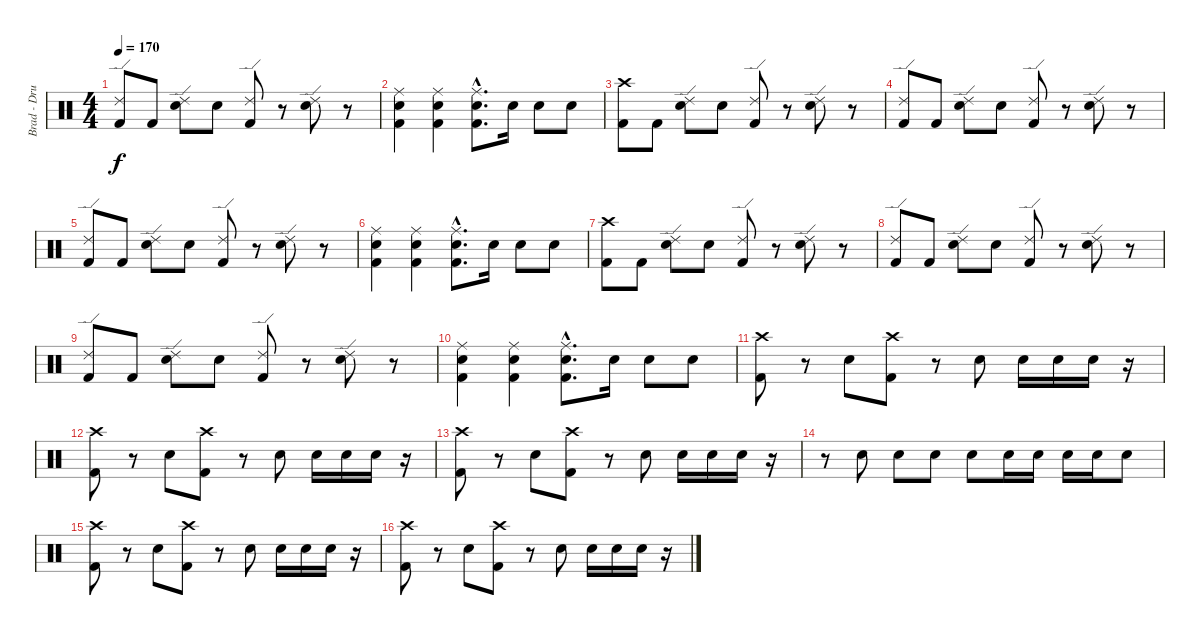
\track ("Brad - Drums" "Brad - Dru") {instrument percussion}
\staff {score}
\articulation defaults
\ts (4 4)
\tempo 170
\clef neutral
\ks c
("Ride (edge) 2" "Kick (hit) 2").8{dy f} "Kick (hit) 2".8 ("Ride (edge) 2" "Electric Snare (hit)").8 "Electric Snare (hit)".8 ("Ride (edge) 2" "Kick (hit) 2").8 r.8 ("Ride (edge) 2" "Electric Snare (hit)").8 r.8 |
("Ride (middle)" "Electric Snare (hit)" "Kick (hit) 2").4 ("Ride (middle)" "Electric Snare (hit)" "Kick (hit) 2").4 ("Ride (middle)"{hac} "Electric Snare (hit)"{hac} "Kick (hit) 2"{hac}).8{d} "Electric Snare (hit)".16 "Electric Snare (hit)".8 "Electric Snare (hit)".8 |
("Crash high (hit)" "Kick (hit) 2").8 "Kick (hit) 2".8 ("Ride (edge) 2" "Electric Snare (hit)").8 "Electric Snare (hit)".8 ("Ride (edge) 2" "Kick (hit) 2").8 r.8 ("Ride (edge) 2" "Electric Snare (hit)").8 r.8 |
("Ride (edge) 2" "Kick (hit) 2").8 "Kick (hit) 2".8 ("Ride (edge) 2" "Electric Snare (hit)").8 "Electric Snare (hit)".8 ("Ride (edge) 2" "Kick (hit) 2").8 r.8 ("Ride (edge) 2" "Electric Snare (hit)").8 r.8 |
("Ride (edge) 2" "Kick (hit) 2").8 "Kick (hit) 2".8 ("Ride (edge) 2" "Electric Snare (hit)").8 "Electric Snare (hit)".8 ("Ride (edge) 2" "Kick (hit) 2").8 r.8 ("Ride (edge) 2" "Electric Snare (hit)").8 r.8 |
("Ride (middle)" "Electric Snare (hit)" "Kick (hit) 2").4 ("Ride (middle)" "Electric Snare (hit)" "Kick (hit) 2").4 ("Ride (middle)"{hac} "Electric Snare (hit)"{hac} "Kick (hit) 2"{hac}).8{d} "Electric Snare (hit)".16 "Electric Snare (hit)".8 "Electric Snare (hit)".8 |
("Crash high (hit)" "Kick (hit) 2").8 "Kick (hit) 2".8 ("Ride (edge) 2" "Electric Snare (hit)").8 "Electric Snare (hit)".8 ("Ride (edge) 2" "Kick (hit) 2").8 r.8 ("Ride (edge) 2" "Electric Snare (hit)").8 r.8 |
("Ride (edge) 2" "Kick (hit) 2").8 "Kick (hit) 2".8 ("Ride (edge) 2" "Electric Snare (hit)").8 "Electric Snare (hit)".8 ("Ride (edge) 2" "Kick (hit) 2").8 r.8 ("Ride (edge) 2" "Electric Snare (hit)").8 r.8 |
("Ride (edge) 2" "Kick (hit) 2").8 "Kick (hit) 2".8 ("Ride (edge) 2" "Electric Snare (hit)").8 "Electric Snare (hit)".8 ("Ride (edge) 2" "Kick (hit) 2").8 r.8 ("Ride (edge) 2" "Electric Snare (hit)").8 r.8 |
("Ride (middle)" "Electric Snare (hit)" "Kick (hit) 2").4 ("Ride (middle)" "Electric Snare (hit)" "Kick (hit) 2").4 ("Ride (middle)"{hac} "Electric Snare (hit)"{hac} "Kick (hit) 2"{hac}).8{d} "Electric Snare (hit)".16 "Electric Snare (hit)".8 "Electric Snare (hit)".8 |
("Crash high (hit)" "Kick (hit) 2").8 r.8 "Electric Snare (hit)".8 ("Crash high (hit)" "Kick (hit) 2").8 r.8 "Electric Snare (hit)".8 "Electric Snare (hit)".16 "Electric Snare (hit)".16 "Electric Snare (hit)".16 r.16 |
("Crash high (hit)" "Kick (hit) 2").8 r.8 "Electric Snare (hit)".8 ("Crash high (hit)" "Kick (hit) 2").8 r.8 "Electric Snare (hit)".8 "Electric Snare (hit)".16 "Electric Snare (hit)".16 "Electric Snare (hit)".16 r.16 |
("Crash high (hit)" "Kick (hit) 2").8 r.8 "Electric Snare (hit)".8 ("Crash high (hit)" "Kick (hit) 2").8 r.8 "Electric Snare (hit)".8 "Electric Snare (hit)".16 "Electric Snare (hit)".16 "Electric Snare (hit)".16 r.16 |
r.8 "Electric Snare (hit)".8 "Electric Snare (hit)".8 "Electric Snare (hit)".8 "Electric Snare (hit)".8 "Electric Snare (hit)".16 "Electric Snare (hit)".16 "Electric Snare (hit)".16 "Electric Snare (hit)".16 "Electric Snare (hit)".8 |
("Crash high (hit)" "Kick (hit) 2").8 r.8 "Electric Snare (hit)".8 ("Crash high (hit)" "Kick (hit) 2").8 r.8 "Electric Snare (hit)".8 "Electric Snare (hit)".16 "Electric Snare (hit)".16 "Electric Snare (hit)".16 r.16 |
("Crash high (hit)" "Kick (hit) 2").8 r.8 "Electric Snare (hit)".8 ("Crash high (hit)" "Kick (hit) 2").8 r.8 "Electric Snare (hit)".8 "Electric Snare (hit)".16 "Electric Snare (hit)".16 "Electric Snare (hit)".16 r.16
